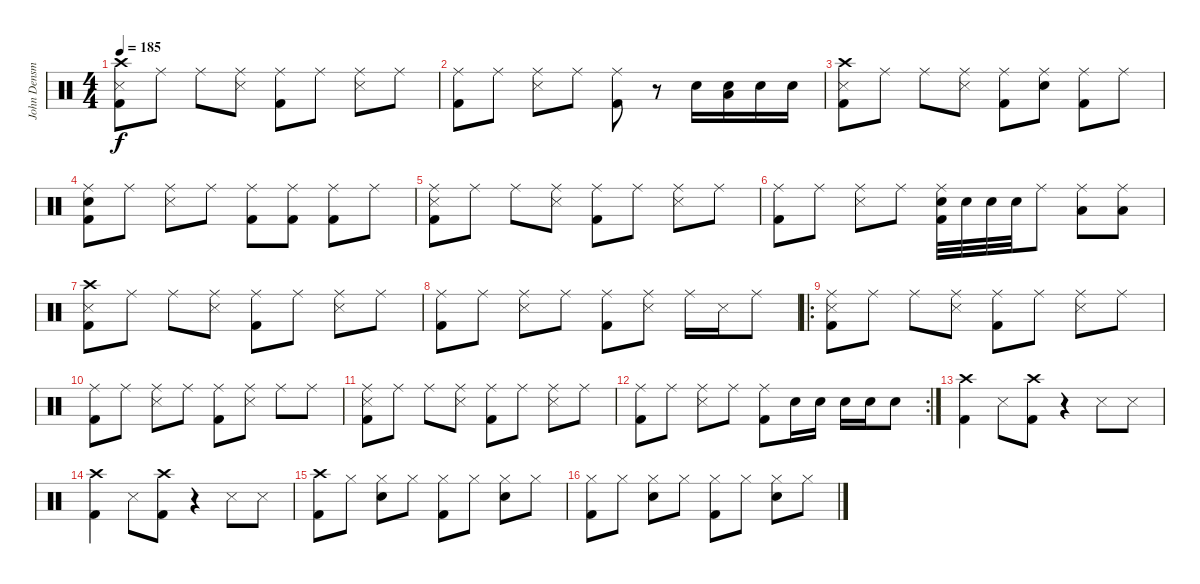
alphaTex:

\track ("John Densmore - Drums" "John Densm") {instrument percussion}
\staff {score}
\articulation defaults
\ts (4 4)
\tempo 185
\clef neutral
\ks c
("Crash high (hit)" "Snare (side stick) 3" "Kick (hit) 2").8{dy f} "Ride (middle)".8 "Ride (middle)".8 ("Ride (middle)" "Snare (side stick) 3").8 ("Ride (middle)" "Kick (hit) 2").8 "Ride (middle)".8 ("Ride (middle)" "Snare (side stick) 3").8 "Ride (middle)".8 |
("Ride (middle)" "Kick (hit) 2").8 "Ride (middle)".8 ("Ride (middle)" "Snare (side stick) 3").8 "Ride (middle)".8 ("Ride (middle)" "Kick (hit) 2").8 r.8 "Snare (hit) 2".16 ("Snare (hit) 2" "Low Tom (hit)").16 "Snare (hit) 2".16 "Snare (hit) 2".16 |
("Crash high (hit)" "Snare (side stick) 3" "Kick (hit) 2").8 "Ride (middle)".8 "Ride (middle)".8 ("Ride (middle)" "Snare (side stick) 3").8 ("Ride (middle)" "Kick (hit) 2").8 ("Ride (middle)" "Snare (hit) 2").8 ("Ride (middle)" "Kick (hit) 2").8 "Ride (middle)".8 |
("Ride (middle)" "Snare (hit) 2" "Kick (hit) 2").8 "Ride (middle)".8 ("Ride (middle)" "Snare (side stick) 3").8 "Ride (middle)".8 ("Ride (middle)" "Kick (hit) 2").8 ("Ride (middle)" "Kick (hit) 2").8 ("Ride (middle)" "Kick (hit) 2").8 "Ride (middle)".8 |
("Ride (middle)" "Snare (side stick) 3" "Kick (hit) 2").8 "Ride (middle)".8 "Ride (middle)".8 ("Ride (middle)" "Snare (side stick) 3").8 ("Ride (middle)" "Kick (hit) 2").8 "Ride (middle)".8 ("Ride (middle)" "Snare (side stick) 3").8 "Ride (middle)".8 |
("Ride (middle)" "Kick (hit) 2").8 "Ride (middle)".8 ("Ride (middle)" "Snare (side stick) 3").8 "Ride (middle)".8 ("Ride (middle)" "Snare (hit) 2" "Kick (hit) 2").32 "Snare (hit) 2".32 "Snare (hit) 2".32 "Snare (hit) 2".32 "Ride (middle)".8 ("Ride (middle)" "Low Floor Tom (hit)").8 ("Ride (middle)" "Low Floor Tom (hit)").8 |
("Crash high (hit)" "Snare (side stick) 3" "Kick (hit) 2").8 "Ride (middle)".8 "Ride (middle)".8 ("Ride (middle)" "Snare (side stick) 3").8 ("Ride (middle)" "Kick (hit) 2").8 "Ride (middle)".8 ("Ride (middle)" "Snare (side stick) 3").8 "Ride (middle)".8 |
("Ride (middle)" "Kick (hit) 2").8 "Ride (middle)".8 ("Ride (middle)" "Snare (side stick) 3").8 "Ride (middle)".8 ("Ride (middle)" "Kick (hit) 2").8 ("Ride (middle)" "Snare (side stick) 3").8 "Ride (middle)".16 "Snare (side stick) 3".16 "Ride (middle)".8 |
\ro
("Ride (middle)" "Snare (side stick) 3" "Kick (hit) 2").8 "Ride (middle)".8 "Ride (middle)".8 ("Ride (middle)" "Snare (side stick) 3").8 ("Ride (middle)" "Kick (hit) 2").8 "Ride (middle)".8 ("Ride (middle)" "Snare (side stick) 3").8 "Ride (middle)".8 |
("Ride (middle)" "Kick (hit) 2").8 "Ride (middle)".8 ("Ride (middle)" "Snare (side stick) 3").8 "Ride (middle)".8 ("Ride (middle)" "Kick (hit) 2").8 ("Ride (middle)" "Snare (side stick) 3").8 "Ride (middle)".8 "Ride (middle)".8 |
("Ride (middle)" "Snare (side stick) 3" "Kick (hit) 2").8 "Ride (middle)".8 "Ride (middle)".8 ("Ride (middle)" "Snare (side stick) 3").8 ("Ride (middle)" "Kick (hit) 2").8 "Ride (middle)".8 ("Ride (middle)" "Snare (side stick) 3").8 "Ride (middle)".8 |
\rc 2
("Ride (middle)" "Kick (hit) 2").8 "Ride (middle)".8 ("Ride (middle)" "Snare (side stick) 3").8 "Ride (middle)".8 ("Ride (middle)" "Kick (hit) 2").8 "Snare (hit) 2".16 "Snare (hit) 2".16 "Snare (hit) 2".16 "Snare (hit) 2".16 "Snare (hit) 2".8 |
("Crash high (hit)" "Kick (hit) 2").4 "Snare (side stick) 3".8 ("Crash high (hit)" "Kick (hit) 2").8 r.4 "Snare (side stick) 3".8 "Snare (side stick) 3".8 |
("Crash high (hit)" "Kick (hit) 2").4 "Snare (side stick) 3".8 ("Crash high (hit)" "Kick (hit) 2").8 r.4 "Snare (side stick) 3".8 "Snare (side stick) 3".8 |
("Crash high (hit)" "Kick (hit) 2").8 "Hi-Hat (closed)".8 ("Hi-Hat (closed)" "Snare (hit) 2").8 "Hi-Hat (closed)".8 ("Hi-Hat (closed)" "Kick (hit) 2").8 "Hi-Hat (closed)".8 ("Hi-Hat (closed)" "Snare (hit) 2").8 "Hi-Hat (closed)".8 |
("Hi-Hat (closed)" "Kick (hit) 2").8 "Hi-Hat (closed)".8 ("Hi-Hat (closed)" "Snare (hit) 2").8 "Hi-Hat (closed)".8 ("Hi-Hat (closed)" "Kick (hit) 2").8 "Hi-Hat (closed)".8 ("Hi-Hat (closed)" "Snare (hit) 2").8 "Hi-Hat (closed)".8
